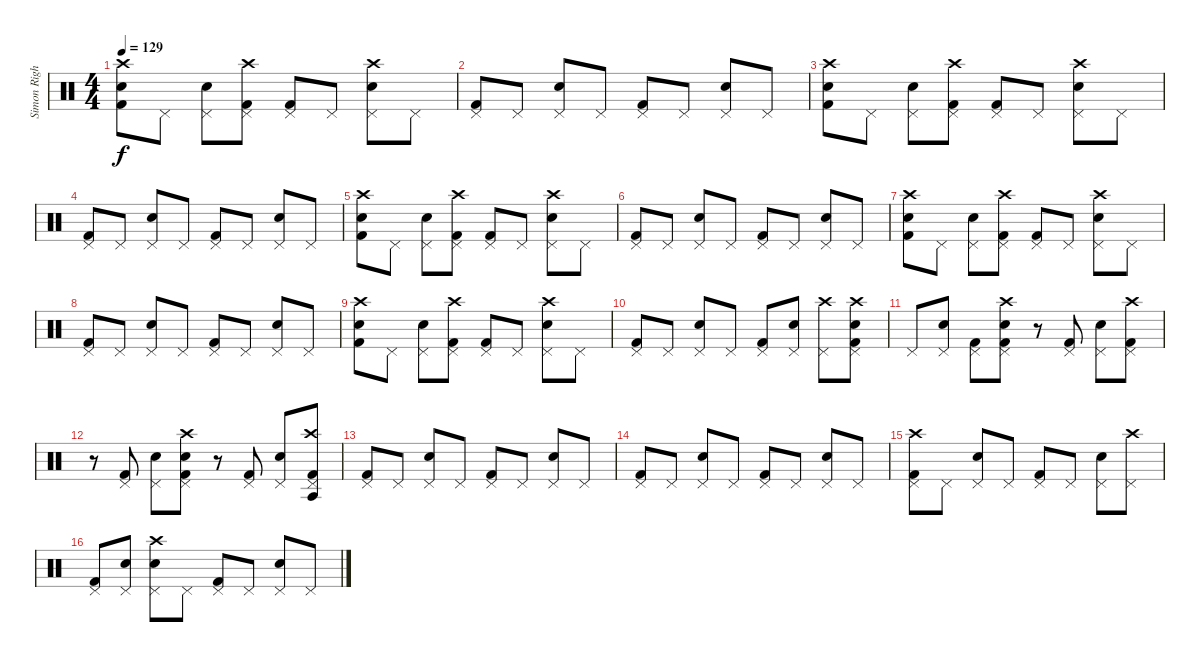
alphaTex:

\track ("Simon Right" "Simon Righ") {instrument percussion}
\staff {score}
\articulation defaults
\ts (4 4)
\tempo 129
\clef neutral
\ks c
("Crash high (hit)" "Snare (hit) 2" "Kick (hit) 2").8{dy f} "Pedal Hi-Hat (hit)".8 ("Snare (hit) 2" "Pedal Hi-Hat (hit)").8 ("Crash high (hit)" "Kick (hit) 2" "Pedal Hi-Hat (hit)").8 ("Kick (hit) 2" "Pedal Hi-Hat (hit)").8 "Pedal Hi-Hat (hit)".8 ("Crash high (hit)" "Pedal Hi-Hat (hit)" "Snare (hit) 2").8 "Pedal Hi-Hat (hit)".8 |
("Pedal Hi-Hat (hit)" "Kick (hit) 2").8 "Pedal Hi-Hat (hit)".8 ("Snare (hit) 2" "Pedal Hi-Hat (hit)").8 "Pedal Hi-Hat (hit)".8 ("Pedal Hi-Hat (hit)" "Kick (hit) 2").8 "Pedal Hi-Hat (hit)".8 ("Snare (hit) 2" "Pedal Hi-Hat (hit)").8 "Pedal Hi-Hat (hit)".8 |
("Crash high (hit)" "Snare (hit) 2" "Kick (hit) 2").8 "Pedal Hi-Hat (hit)".8 ("Snare (hit) 2" "Pedal Hi-Hat (hit)").8 ("Crash high (hit)" "Kick (hit) 2" "Pedal Hi-Hat (hit)").8 ("Kick (hit) 2" "Pedal Hi-Hat (hit)").8 "Pedal Hi-Hat (hit)".8 ("Crash high (hit)" "Pedal Hi-Hat (hit)" "Snare (hit) 2").8 "Pedal Hi-Hat (hit)".8 |
("Pedal Hi-Hat (hit)" "Kick (hit) 2").8 "Pedal Hi-Hat (hit)".8 ("Snare (hit) 2" "Pedal Hi-Hat (hit)").8 "Pedal Hi-Hat (hit)".8 ("Pedal Hi-Hat (hit)" "Kick (hit) 2").8 "Pedal Hi-Hat (hit)".8 ("Snare (hit) 2" "Pedal Hi-Hat (hit)").8 "Pedal Hi-Hat (hit)".8 |
("Crash high (hit)" "Snare (hit) 2" "Kick (hit) 2").8 "Pedal Hi-Hat (hit)".8 ("Snare (hit) 2" "Pedal Hi-Hat (hit)").8 ("Crash high (hit)" "Kick (hit) 2" "Pedal Hi-Hat (hit)").8 ("Kick (hit) 2" "Pedal Hi-Hat (hit)").8 "Pedal Hi-Hat (hit)".8 ("Crash high (hit)" "Pedal Hi-Hat (hit)" "Snare (hit) 2").8 "Pedal Hi-Hat (hit)".8 |
("Pedal Hi-Hat (hit)" "Kick (hit) 2").8 "Pedal Hi-Hat (hit)".8 ("Snare (hit) 2" "Pedal Hi-Hat (hit)").8 "Pedal Hi-Hat (hit)".8 ("Pedal Hi-Hat (hit)" "Kick (hit) 2").8 "Pedal Hi-Hat (hit)".8 ("Snare (hit) 2" "Pedal Hi-Hat (hit)").8 "Pedal Hi-Hat (hit)".8 |
("Crash high (hit)" "Snare (hit) 2" "Kick (hit) 2").8 "Pedal Hi-Hat (hit)".8 ("Snare (hit) 2" "Pedal Hi-Hat (hit)").8 ("Crash high (hit)" "Kick (hit) 2" "Pedal Hi-Hat (hit)").8 ("Kick (hit) 2" "Pedal Hi-Hat (hit)").8 "Pedal Hi-Hat (hit)".8 ("Crash high (hit)" "Pedal Hi-Hat (hit)" "Snare (hit) 2").8 "Pedal Hi-Hat (hit)".8 |
("Pedal Hi-Hat (hit)" "Kick (hit) 2").8 "Pedal Hi-Hat (hit)".8 ("Snare (hit) 2" "Pedal Hi-Hat (hit)").8 "Pedal Hi-Hat (hit)".8 ("Pedal Hi-Hat (hit)" "Kick (hit) 2").8 "Pedal Hi-Hat (hit)".8 ("Snare (hit) 2" "Pedal Hi-Hat (hit)").8 "Pedal Hi-Hat (hit)".8 |
("Crash high (hit)" "Snare (hit) 2" "Kick (hit) 2").8 "Pedal Hi-Hat (hit)".8 ("Snare (hit) 2" "Pedal Hi-Hat (hit)").8 ("Crash high (hit)" "Kick (hit) 2" "Pedal Hi-Hat (hit)").8 ("Kick (hit) 2" "Pedal Hi-Hat (hit)").8 "Pedal Hi-Hat (hit)".8 ("Crash high (hit)" "Pedal Hi-Hat (hit)" "Snare (hit) 2").8 "Pedal Hi-Hat (hit)".8 |
("Pedal Hi-Hat (hit)" "Kick (hit) 2").8 "Pedal Hi-Hat (hit)".8 ("Snare (hit) 2" "Pedal Hi-Hat (hit)").8 "Pedal Hi-Hat (hit)".8 ("Pedal Hi-Hat (hit)" "Kick (hit) 2").8 ("Snare (hit) 2" "Pedal Hi-Hat (hit)").8 ("Crash high (hit)" "Pedal Hi-Hat (hit)").8 ("Crash high (hit)" "Snare (hit) 2" "Kick (hit) 2" "Pedal Hi-Hat (hit)").8 |
"Pedal Hi-Hat (hit)".8{volume 14} ("Pedal Hi-Hat (hit)" "Snare (hit) 2").8 ("Pedal Hi-Hat (hit)" "Kick (hit) 2").8 ("Pedal Hi-Hat (hit)" "Crash high (hit)" "Snare (hit) 2" "Kick (hit) 2").8 r.8 ("Pedal Hi-Hat (hit)" "Kick (hit) 2").8 ("Pedal Hi-Hat (hit)" "Snare (hit) 2").8 ("Kick (hit) 2" "Crash high (hit)" "Pedal Hi-Hat (hit)").8 |
r.8 ("Kick (hit) 2" "Pedal Hi-Hat (hit)").8 ("Snare (hit) 2" "Pedal Hi-Hat (hit)").8 ("Crash high (hit)" "Snare (hit) 2" "Kick (hit) 2" "Pedal Hi-Hat (hit)").8 r.8 ("Kick (hit) 2" "Pedal Hi-Hat (hit)").8 ("Snare (hit) 2" "Pedal Hi-Hat (hit)").8 ("Crash high (hit)" "Agogo tow (hit)" "Kick (hit) 2" "Pedal Hi-Hat (hit)").8 |
("Pedal Hi-Hat (hit)" "Kick (hit) 2").8 "Pedal Hi-Hat (hit)".8 ("Snare (hit) 2" "Pedal Hi-Hat (hit)").8 "Pedal Hi-Hat (hit)".8 ("Pedal Hi-Hat (hit)" "Kick (hit) 2").8 "Pedal Hi-Hat (hit)".8 ("Snare (hit) 2" "Pedal Hi-Hat (hit)").8 "Pedal Hi-Hat (hit)".8 |
("Pedal Hi-Hat (hit)" "Kick (hit) 2").8 "Pedal Hi-Hat (hit)".8 ("Snare (hit) 2" "Pedal Hi-Hat (hit)").8 "Pedal Hi-Hat (hit)".8 ("Pedal Hi-Hat (hit)" "Kick (hit) 2").8 "Pedal Hi-Hat (hit)".8 ("Snare (hit) 2" "Pedal Hi-Hat (hit)").8 "Pedal Hi-Hat (hit)".8 |
("Crash high (hit)" "Pedal Hi-Hat (hit)" "Kick (hit) 2").8 "Pedal Hi-Hat (hit)".8 ("Snare (hit) 2" "Pedal Hi-Hat (hit)").8 "Pedal Hi-Hat (hit)".8 ("Pedal Hi-Hat (hit)" "Kick (hit) 2").8 "Pedal Hi-Hat (hit)".8 ("Snare (hit) 2" "Pedal Hi-Hat (hit)").8 ("Crash high (hit)" "Pedal Hi-Hat (hit)").8 |
("Pedal Hi-Hat (hit)" "Kick (hit) 2").8 ("Snare (hit) 2" "Pedal Hi-Hat (hit)").8 ("Crash high (hit)" "Snare (hit) 2" "Pedal Hi-Hat (hit)").8 "Pedal Hi-Hat (hit)".8 ("Pedal Hi-Hat (hit)" "Kick (hit) 2").8 "Pedal Hi-Hat (hit)".8 ("Snare (hit) 2" "Pedal Hi-Hat (hit)").8 "Pedal Hi-Hat (hit)".8
